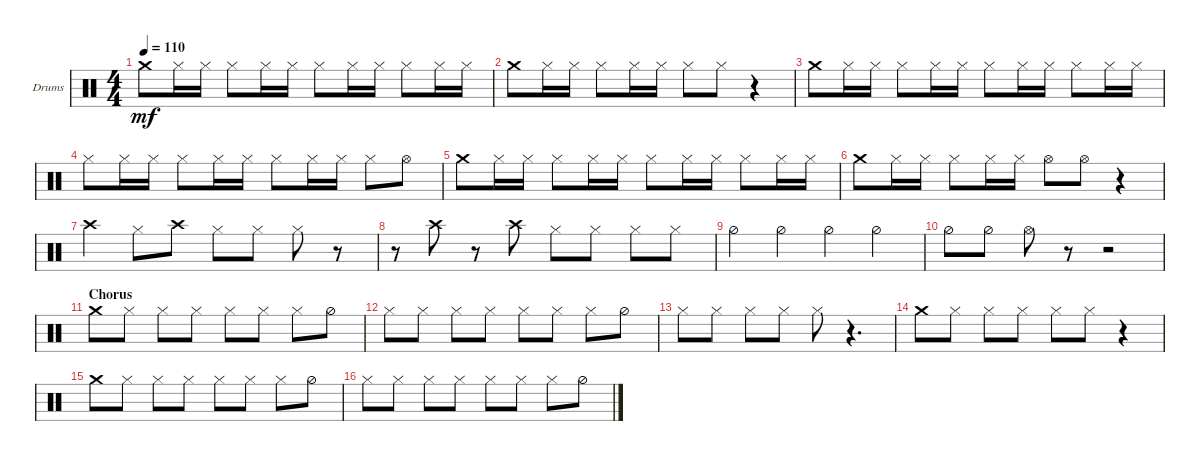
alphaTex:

\defaultSystemsLayout 4
\bracketExtendMode groupsimilarinstruments
\firstSystemTrackNameOrientation horizontal
\otherSystemsTrackNameOrientation horizontal
\track ("Drumkit" "Drums") {instrument percussion}
\staff {score}
\articulation defaults
\ts (4 4)
\tempo 110
\clef neutral
\ks c "Crash medium (hit)".8{dy mf} "Hi-Hat (closed)".16 "Hi-Hat (closed)".16 "Hi-Hat (closed)".8 "Hi-Hat (closed)".16 "Hi-Hat (closed)".16 "Hi-Hat (closed)".8 "Hi-Hat (closed)".16 "Hi-Hat (closed)".16 "Hi-Hat (closed)".8 "Hi-Hat (closed)".16 "Hi-Hat (closed)".16
|
"Crash medium (hit)".8 "Hi-Hat (closed)".16 "Hi-Hat (closed)".16 "Hi-Hat (closed)".8 "Hi-Hat (closed)".16 "Hi-Hat (closed)".16 "Hi-Hat (closed)".8 "Hi-Hat (closed)".8 r.4 |
"Crash medium (hit)".8 "Hi-Hat (closed)".16 "Hi-Hat (closed)".16 "Hi-Hat (closed)".8 "Hi-Hat (closed)".16 "Hi-Hat (closed)".16 "Hi-Hat (closed)".8 "Hi-Hat (closed)".16 "Hi-Hat (closed)".16 "Hi-Hat (closed)".8 "Hi-Hat (closed)".16 "Hi-Hat (closed)".16 |
"Hi-Hat (closed)".8 "Hi-Hat (closed)".16 "Hi-Hat (closed)".16 "Hi-Hat (closed)".8 "Hi-Hat (closed)".16 "Hi-Hat (closed)".16 "Hi-Hat (closed)".8 "Hi-Hat (closed)".16 "Hi-Hat (closed)".16 "Hi-Hat (closed)".8 "Hi-Hat (open)".8 |
"Crash medium (hit)".8 "Hi-Hat (closed)".16 "Hi-Hat (closed)".16 "Hi-Hat (closed)".8 "Hi-Hat (closed)".16 "Hi-Hat (closed)".16 "Hi-Hat (closed)".8 "Hi-Hat (closed)".16 "Hi-Hat (closed)".16 "Hi-Hat (closed)".8 "Hi-Hat (closed)".16 "Hi-Hat (closed)".16 |
"Crash medium (hit)".8 "Hi-Hat (closed)".16 "Hi-Hat (closed)".16 "Hi-Hat (closed)".8 "Hi-Hat (closed)".16 "Hi-Hat (closed)".16 "Hi-Hat (open)".8 "Hi-Hat (open)".8 r.4 |
"Crash high (hit)".4 "Hi-Hat (closed)".8 "Crash high (hit)".8 "Hi-Hat (closed)".8 "Hi-Hat (closed)".8 "Hi-Hat (closed)".8 r.8 |
r.8 "Crash high (hit)".8 r.8 "Crash high (hit)".8 "Hi-Hat (closed)".8 "Hi-Hat (closed)".8 "Hi-Hat (closed)".8 "Hi-Hat (closed)".8 |
"Hi-Hat (half)".4 "Hi-Hat (half)".4 "Hi-Hat (half)".4 "Hi-Hat (half)".4 |
"Hi-Hat (half)".8 "Hi-Hat (half)".8 "Hi-Hat (open)".8 r.8 r.2 |
\section ("" "Chorus")
"Crash medium (hit)".8 "Hi-Hat (closed)".8 "Hi-Hat (closed)".8 "Hi-Hat (closed)".8 "Hi-Hat (closed)".8 "Hi-Hat (closed)".8 "Hi-Hat (closed)".8 "Hi-Hat (half)".8 |
"Hi-Hat (closed)".8 "Hi-Hat (closed)".8 "Hi-Hat (closed)".8 "Hi-Hat (closed)".8 "Hi-Hat (closed)".8 "Hi-Hat (closed)".8 "Hi-Hat (closed)".8 "Hi-Hat (half)".8 |
"Hi-Hat (closed)".8 "Hi-Hat (closed)".8 "Hi-Hat (closed)".8 "Hi-Hat (closed)".8 "Hi-Hat (closed)".8 r.4{d} |
"Crash medium (hit)".8 "Hi-Hat (closed)".8 "Hi-Hat (closed)".8 "Hi-Hat (closed)".8 "Hi-Hat (closed)".8 "Hi-Hat (closed)".8 r.4 |
"Crash medium (hit)".8 "Hi-Hat (closed)".8 "Hi-Hat (closed)".8 "Hi-Hat (closed)".8 "Hi-Hat (closed)".8 "Hi-Hat (closed)".8 "Hi-Hat (closed)".8 "Hi-Hat (half)".8 |
"Hi-Hat (closed)".8 "Hi-Hat (closed)".8 "Hi-Hat (closed)".8 "Hi-Hat (closed)".8 "Hi-Hat (closed)".8 "Hi-Hat (closed)".8 "Hi-Hat (closed)".8 "Hi-Hat (half)".8
